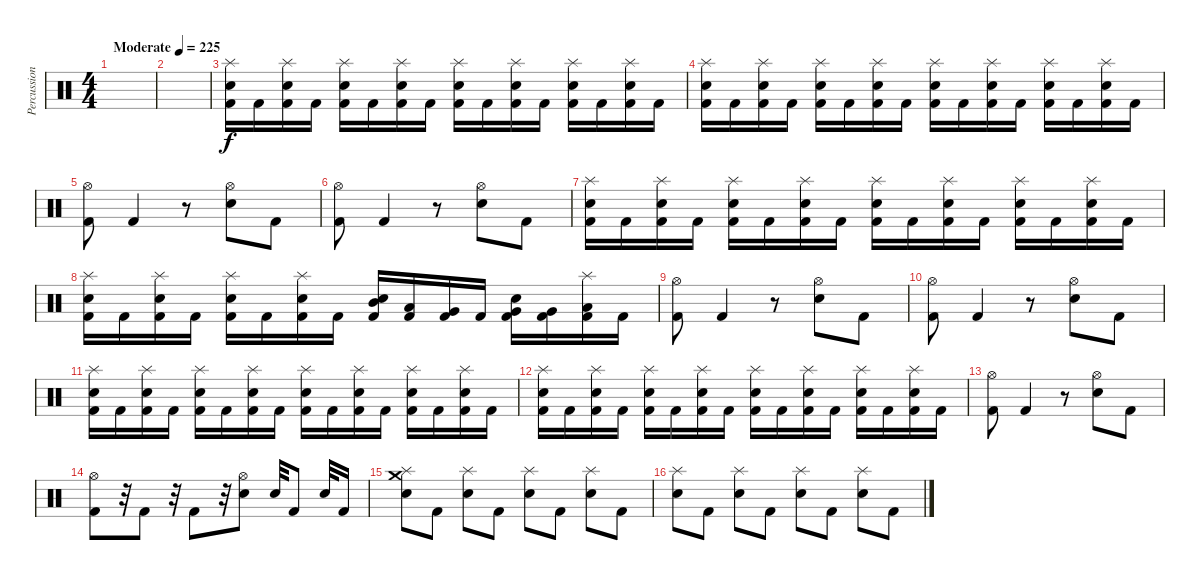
\track ("Percussion" "Percussion") {instrument percussion}
\staff {score}
\articulation defaults
\ts (4 4)
\tempo (225 "Moderate")
\clef neutral
\ks c
|
|
("Splash (hit)" "Snare (hit) 2" "Kick (hit) 2").16 "Kick (hit) 2".16 ("Splash (hit)" "Snare (hit) 2" "Kick (hit) 2").16 "Kick (hit) 2".16 ("Splash (hit)" "Snare (hit) 2" "Kick (hit) 2").16 "Kick (hit) 2".16 ("Splash (hit)" "Snare (hit) 2" "Kick (hit) 2").16 "Kick (hit) 2".16 ("Splash (hit)" "Snare (hit) 2" "Kick (hit) 2").16 "Kick (hit) 2".16 ("Splash (hit)" "Snare (hit) 2" "Kick (hit) 2").16 "Kick (hit) 2".16 ("Splash (hit)" "Snare (hit) 2" "Kick (hit) 2").16 "Kick (hit) 2".16 ("Splash (hit)" "Snare (hit) 2" "Kick (hit) 2").16 "Kick (hit) 2".16 |
("Splash (hit)" "Snare (hit) 2" "Kick (hit) 2").16 "Kick (hit) 2".16 ("Splash (hit)" "Snare (hit) 2" "Kick (hit) 2").16 "Kick (hit) 2".16 ("Splash (hit)" "Snare (hit) 2" "Kick (hit) 2").16 "Kick (hit) 2".16 ("Splash (hit)" "Snare (hit) 2" "Kick (hit) 2").16 "Kick (hit) 2".16 ("Splash (hit)" "Snare (hit) 2" "Kick (hit) 2").16 "Kick (hit) 2".16 ("Splash (hit)" "Snare (hit) 2" "Kick (hit) 2").16 "Kick (hit) 2".16 ("Splash (hit)" "Snare (hit) 2" "Kick (hit) 2").16 "Kick (hit) 2".16 ("Splash (hit)" "Snare (hit) 2" "Kick (hit) 2").16 "Kick (hit) 2".16 |
("Kick (hit) 2" "Hi-Hat (open)").8 "Kick (hit) 2".4 r.8 ("Hi-Hat (open)" "Snare (hit) 2").8 "Kick (hit) 2".8 |
("Kick (hit) 2" "Hi-Hat (open)").8 "Kick (hit) 2".4 r.8 ("Hi-Hat (open)" "Snare (hit) 2").8 "Kick (hit) 2".8 |
("Splash (hit)" "Snare (hit) 2" "Kick (hit) 2").16 "Kick (hit) 2".16 ("Splash (hit)" "Snare (hit) 2" "Kick (hit) 2").16 "Kick (hit) 2".16 ("Splash (hit)" "Snare (hit) 2" "Kick (hit) 2").16 "Kick (hit) 2".16 ("Splash (hit)" "Snare (hit) 2" "Kick (hit) 2").16 "Kick (hit) 2".16 ("Splash (hit)" "Snare (hit) 2" "Kick (hit) 2").16 "Kick (hit) 2".16 ("Splash (hit)" "Snare (hit) 2" "Kick (hit) 2").16 "Kick (hit) 2".16 ("Splash (hit)" "Snare (hit) 2" "Kick (hit) 2").16 "Kick (hit) 2".16 ("Splash (hit)" "Snare (hit) 2" "Kick (hit) 2").16 "Kick (hit) 2".16 |
("Splash (hit)" "Snare (hit) 2" "Kick (hit) 2").16 "Kick (hit) 2".16 ("Splash (hit)" "Snare (hit) 2" "Kick (hit) 2").16 "Kick (hit) 2".16 ("Splash (hit)" "Snare (hit) 2" "Kick (hit) 2").16 "Kick (hit) 2".16 ("Splash (hit)" "Snare (hit) 2" "Kick (hit) 2").16 "Kick (hit) 2".16 ("Snare (hit) 2" "Mid Tom (hit)" "Kick (hit) 2").16 ("Low Tom (hit)" "Kick (hit) 2").16 ("Very Low Tom (hit)" "Kick (hit) 2").16 "Kick (hit) 2".16 ("Snare (hit) 2" "Very Low Tom (hit)" "Kick (hit) 2").16 ("Very Low Tom (hit)" "Kick (hit) 2").16 ("Splash (hit)" "Low Floor Tom (hit)" "Kick (hit) 2").16 "Kick (hit) 2".16 |
("Kick (hit) 2" "Hi-Hat (open)").8 "Kick (hit) 2".4 r.8 ("Hi-Hat (open)" "Snare (hit) 2").8 "Kick (hit) 2".8 |
("Kick (hit) 2" "Hi-Hat (open)").8 "Kick (hit) 2".4 r.8 ("Hi-Hat (open)" "Snare (hit) 2").8 "Kick (hit) 2".8 |
("Splash (hit)" "Snare (hit) 2" "Kick (hit) 2").16 "Kick (hit) 2".16 ("Splash (hit)" "Snare (hit) 2" "Kick (hit) 2").16 "Kick (hit) 2".16 ("Splash (hit)" "Snare (hit) 2" "Kick (hit) 2").16 "Kick (hit) 2".16 ("Splash (hit)" "Snare (hit) 2" "Kick (hit) 2").16 "Kick (hit) 2".16 ("Splash (hit)" "Snare (hit) 2" "Kick (hit) 2").16 "Kick (hit) 2".16 ("Splash (hit)" "Snare (hit) 2" "Kick (hit) 2").16 "Kick (hit) 2".16 ("Splash (hit)" "Snare (hit) 2" "Kick (hit) 2").16 "Kick (hit) 2".16 ("Splash (hit)" "Snare (hit) 2" "Kick (hit) 2").16 "Kick (hit) 2".16 |
("Splash (hit)" "Snare (hit) 2" "Kick (hit) 2").16 "Kick (hit) 2".16 ("Splash (hit)" "Snare (hit) 2" "Kick (hit) 2").16 "Kick (hit) 2".16 ("Splash (hit)" "Snare (hit) 2" "Kick (hit) 2").16 "Kick (hit) 2".16 ("Splash (hit)" "Snare (hit) 2" "Kick (hit) 2").16 "Kick (hit) 2".16 ("Splash (hit)" "Snare (hit) 2" "Kick (hit) 2").16 "Kick (hit) 2".16 ("Splash (hit)" "Snare (hit) 2" "Kick (hit) 2").16 "Kick (hit) 2".16 ("Splash (hit)" "Snare (hit) 2" "Kick (hit) 2").16 "Kick (hit) 2".16 ("Splash (hit)" "Snare (hit) 2" "Kick (hit) 2").16 "Kick (hit) 2".16 |
("Kick (hit) 2" "Hi-Hat (open)").8 "Kick (hit) 2".4 r.8 ("Hi-Hat (open)" "Snare (hit) 2").8 "Kick (hit) 2".8 |
("Kick (hit) 2" "Hi-Hat (open)").8 r.32 "Kick (hit) 2".8 r.32 "Kick (hit) 2".8 r.32 ("Snare (hit) 2" "Hi-Hat (open)").8 "Snare (hit)".32 "Kick (hit) 2".8 "Snare (hit)".32 "Kick (hit) 2".16 |
("Crash medium (hit)" "Splash (hit)" "Snare (hit) 2").8 "Kick (hit) 2".8 ("Splash (hit)" "Snare (hit) 2").8 "Kick (hit) 2".8 ("Splash (hit)" "Snare (hit) 2").8 "Kick (hit) 2".8 ("Splash (hit)" "Snare (hit) 2").8 "Kick (hit) 2".8 |
("Splash (hit)" "Snare (hit) 2").8 "Kick (hit) 2".8 ("Splash (hit)" "Snare (hit) 2").8 "Kick (hit) 2".8 ("Splash (hit)" "Snare (hit) 2").8 "Kick (hit) 2".8 ("Splash (hit)" "Snare (hit) 2").8 "Kick (hit) 2".8
